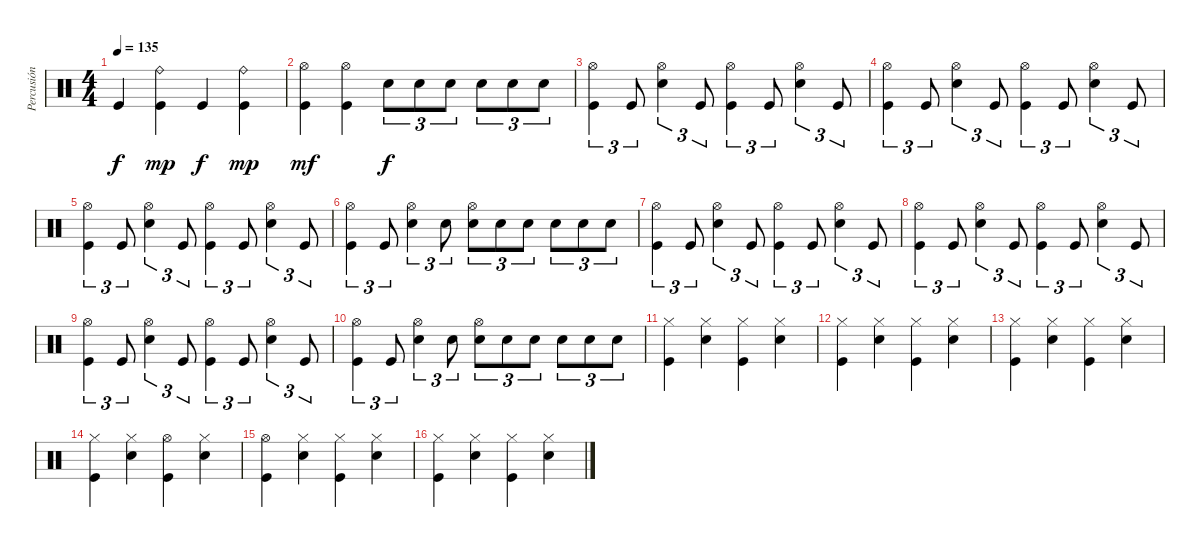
\track ("Percusión" "Percusión") {instrument percussion}
\staff {score}
\articulation defaults
\ts (4 4)
\tempo 135
\clef neutral
\ks c "Kick (hit)".4{dy f}
("Ride (bell)" "Kick (hit)").4{dy mp} "Kick (hit)".4{dy f} ("Ride (bell)" "Kick (hit)").4{dy mp} |
("Hi-Hat (open)" "Kick (hit)").4{dy mf} ("Hi-Hat (open)" "Kick (hit)").4 "Snare (hit) 2".8{tu (3 2) dy f} "Snare (hit) 2".8{tu (3 2)} "Snare (hit) 2".8{tu (3 2)} "Snare (hit) 2".8{tu (3 2)} "Snare (hit) 2".8{tu (3 2)} "Snare (hit) 2".8{tu (3 2)} |
("Hi-Hat (open)" "Kick (hit)").4{tu (3 2)} "Kick (hit)".8{tu (3 2)} ("Hi-Hat (open)" "Snare (hit) 2").4{tu (3 2)} "Kick (hit)".8{tu (3 2)} ("Hi-Hat (open)" "Kick (hit)").4{tu (3 2)} "Kick (hit)".8{tu (3 2)} ("Hi-Hat (open)" "Snare (hit) 2").4{tu (3 2)} "Kick (hit)".8{tu (3 2)} |
("Hi-Hat (open)" "Kick (hit)").4{tu (3 2)} "Kick (hit)".8{tu (3 2)} ("Hi-Hat (open)" "Snare (hit) 2").4{tu (3 2)} "Kick (hit)".8{tu (3 2)} ("Hi-Hat (open)" "Kick (hit)").4{tu (3 2)} "Kick (hit)".8{tu (3 2)} ("Hi-Hat (open)" "Snare (hit) 2").4{tu (3 2)} "Kick (hit)".8{tu (3 2)} |
("Hi-Hat (open)" "Kick (hit)").4{tu (3 2)} "Kick (hit)".8{tu (3 2)} ("Hi-Hat (open)" "Snare (hit) 2").4{tu (3 2)} "Kick (hit)".8{tu (3 2)} ("Hi-Hat (open)" "Kick (hit)").4{tu (3 2)} "Kick (hit)".8{tu (3 2)} ("Hi-Hat (open)" "Snare (hit) 2").4{tu (3 2)} "Kick (hit)".8{tu (3 2)} |
("Hi-Hat (open)" "Kick (hit)").4{tu (3 2)} "Kick (hit)".8{tu (3 2)} ("Hi-Hat (open)" "Snare (hit) 2").4{tu (3 2)} "Snare (hit) 2".8{tu (3 2)} ("Hi-Hat (open)" "Snare (hit) 2").8{tu (3 2)} "Snare (hit) 2".8{tu (3 2)} "Snare (hit) 2".8{tu (3 2)} "Snare (hit) 2".8{tu (3 2)} "Snare (hit) 2".8{tu (3 2)} "Snare (hit) 2".8{tu (3 2)} |
("Hi-Hat (open)" "Kick (hit)").4{tu (3 2)} "Kick (hit)".8{tu (3 2)} ("Hi-Hat (open)" "Snare (hit) 2").4{tu (3 2)} "Kick (hit)".8{tu (3 2)} ("Hi-Hat (open)" "Kick (hit)").4{tu (3 2)} "Kick (hit)".8{tu (3 2)} ("Hi-Hat (open)" "Snare (hit) 2").4{tu (3 2)} "Kick (hit)".8{tu (3 2)} |
("Hi-Hat (open)" "Kick (hit)").4{tu (3 2)} "Kick (hit)".8{tu (3 2)} ("Hi-Hat (open)" "Snare (hit) 2").4{tu (3 2)} "Kick (hit)".8{tu (3 2)} ("Hi-Hat (open)" "Kick (hit)").4{tu (3 2)} "Kick (hit)".8{tu (3 2)} ("Hi-Hat (open)" "Snare (hit) 2").4{tu (3 2)} "Kick (hit)".8{tu (3 2)} |
("Hi-Hat (open)" "Kick (hit)").4{tu (3 2)} "Kick (hit)".8{tu (3 2)} ("Hi-Hat (open)" "Snare (hit) 2").4{tu (3 2)} "Kick (hit)".8{tu (3 2)} ("Hi-Hat (open)" "Kick (hit)").4{tu (3 2)} "Kick (hit)".8{tu (3 2)} ("Hi-Hat (open)" "Snare (hit) 2").4{tu (3 2)} "Kick (hit)".8{tu (3 2)} |
("Hi-Hat (open)" "Kick (hit)").4{tu (3 2)} "Kick (hit)".8{tu (3 2)} ("Hi-Hat (open)" "Snare (hit) 2").4{tu (3 2)} "Snare (hit) 2".8{tu (3 2)} ("Hi-Hat (open)" "Snare (hit) 2").8{tu (3 2)} "Snare (hit) 2".8{tu (3 2)} "Snare (hit) 2".8{tu (3 2)} "Snare (hit) 2".8{tu (3 2)} "Snare (hit) 2".8{tu (3 2)} "Snare (hit) 2".8{tu (3 2)} |
("Hi-Hat (closed)" "Kick (hit)").4 ("Hi-Hat (closed)" "Snare (hit) 2").4 ("Hi-Hat (closed)" "Kick (hit)").4 ("Hi-Hat (closed)" "Snare (hit) 2").4 |
("Hi-Hat (closed)" "Kick (hit)").4 ("Hi-Hat (closed)" "Snare (hit) 2").4 ("Hi-Hat (closed)" "Kick (hit)").4 ("Hi-Hat (closed)" "Snare (hit) 2").4 |
("Hi-Hat (closed)" "Kick (hit)").4 ("Hi-Hat (closed)" "Snare (hit) 2").4 ("Hi-Hat (closed)" "Kick (hit)").4 ("Hi-Hat (closed)" "Snare (hit) 2").4 |
("Hi-Hat (closed)" "Kick (hit)").4 ("Hi-Hat (closed)" "Snare (hit) 2").4 ("Hi-Hat (open)" "Kick (hit)").4 ("Hi-Hat (closed)" "Snare (hit) 2").4 |
("Hi-Hat (open)" "Kick (hit)").4 ("Hi-Hat (closed)" "Snare (hit) 2").4 ("Hi-Hat (closed)" "Kick (hit)").4 ("Hi-Hat (closed)" "Snare (hit) 2").4 |
("Hi-Hat (closed)" "Kick (hit)").4 ("Hi-Hat (closed)" "Snare (hit) 2").4 ("Hi-Hat (closed)" "Kick (hit)").4 ("Hi-Hat (closed)" "Snare (hit) 2").4
